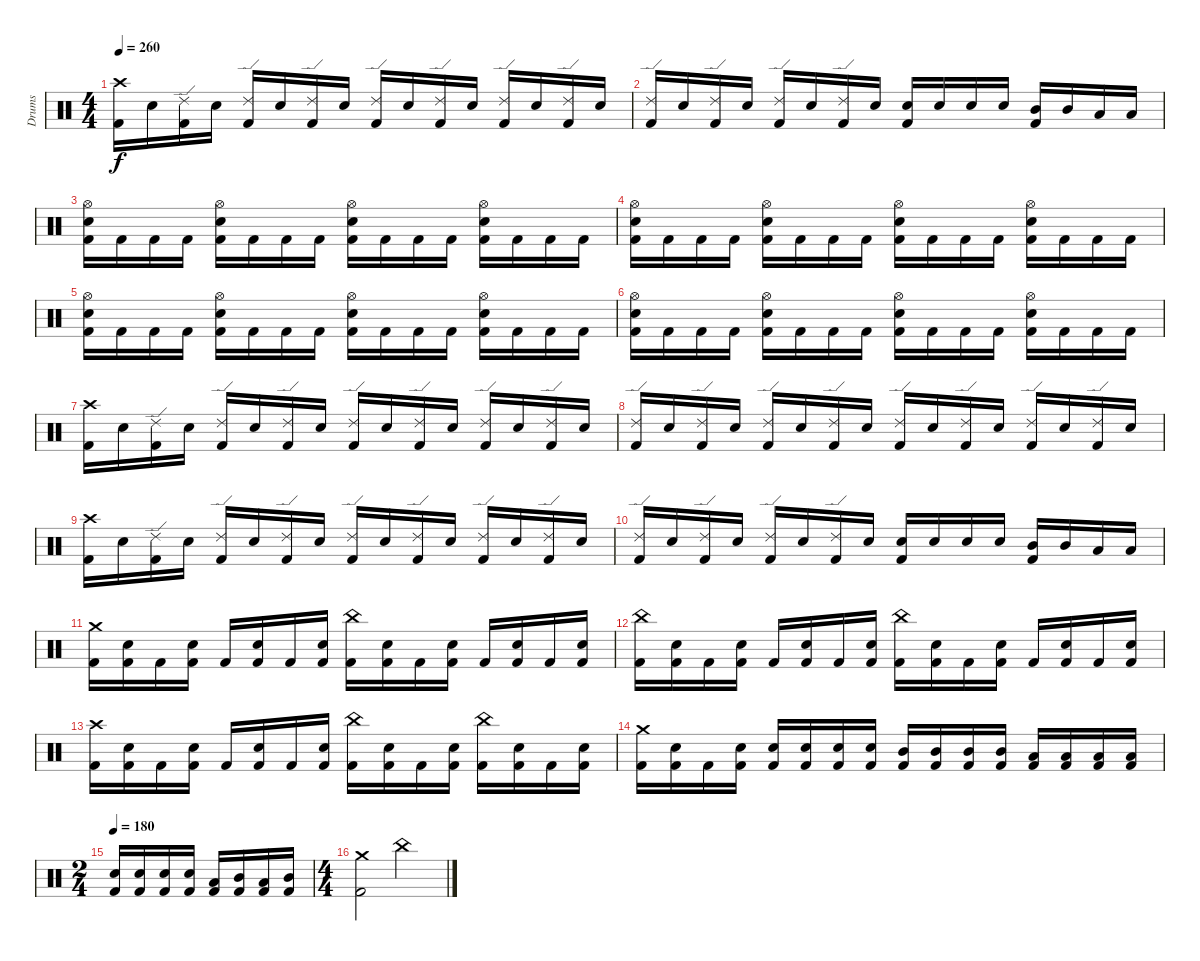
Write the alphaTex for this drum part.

\track ("Drums" "Drums") {instrument percussion}
\staff {score}
\articulation defaults
\ts (4 4)
\tempo 260
\clef neutral
\ks c
("Crash high (hit)" "Kick (hit) 2").16{dy f} "Snare (hit) 2".16 ("Ride (edge) 2" "Kick (hit) 2").16 "Snare (hit) 2".16 ("Ride (edge) 2" "Kick (hit) 2").16 "Snare (hit) 2".16 ("Ride (edge) 2" "Kick (hit) 2").16 "Snare (hit) 2".16 ("Ride (edge) 2" "Kick (hit) 2").16 "Snare (hit) 2".16 ("Ride (edge) 2" "Kick (hit) 2").16 "Snare (hit) 2".16 ("Ride (edge) 2" "Kick (hit) 2").16 "Snare (hit) 2".16 ("Ride (edge) 2" "Kick (hit) 2").16 "Snare (hit) 2".16 |
("Ride (edge) 2" "Kick (hit) 2").16 "Snare (hit) 2".16 ("Ride (edge) 2" "Kick (hit) 2").16 "Snare (hit) 2".16 ("Ride (edge) 2" "Kick (hit) 2").16 "Snare (hit) 2".16 ("Ride (edge) 2" "Kick (hit) 2").16 "Snare (hit) 2".16 ("Snare (hit) 2" "Kick (hit) 2").16 "Snare (hit) 2".16 "Snare (hit) 2".16 "Snare (hit) 2".16 ("Mid Tom (hit)" "Kick (hit) 2").16 "Mid Tom (hit)".16 "Low Tom (hit)".16 "Low Tom (hit)".16 |
("Hi-Hat (open)" "Snare (hit) 2" "Kick (hit) 2").16 "Kick (hit) 2".16 "Kick (hit) 2".16 "Kick (hit) 2".16 ("Hi-Hat (open)" "Snare (hit) 2" "Kick (hit) 2").16 "Kick (hit) 2".16 "Kick (hit) 2".16 "Kick (hit) 2".16 ("Hi-Hat (open)" "Snare (hit) 2" "Kick (hit) 2").16 "Kick (hit) 2".16 "Kick (hit) 2".16 "Kick (hit) 2".16 ("Hi-Hat (open)" "Snare (hit) 2" "Kick (hit) 2").16 "Kick (hit) 2".16 "Kick (hit) 2".16 "Kick (hit) 2".16 |
("Hi-Hat (open)" "Snare (hit) 2" "Kick (hit) 2").16 "Kick (hit) 2".16 "Kick (hit) 2".16 "Kick (hit) 2".16 ("Hi-Hat (open)" "Snare (hit) 2" "Kick (hit) 2").16 "Kick (hit) 2".16 "Kick (hit) 2".16 "Kick (hit) 2".16 ("Hi-Hat (open)" "Snare (hit) 2" "Kick (hit) 2").16 "Kick (hit) 2".16 "Kick (hit) 2".16 "Kick (hit) 2".16 ("Hi-Hat (open)" "Snare (hit) 2" "Kick (hit) 2").16 "Kick (hit) 2".16 "Kick (hit) 2".16 "Kick (hit) 2".16 |
("Hi-Hat (open)" "Snare (hit) 2" "Kick (hit) 2").16 "Kick (hit) 2".16 "Kick (hit) 2".16 "Kick (hit) 2".16 ("Hi-Hat (open)" "Snare (hit) 2" "Kick (hit) 2").16 "Kick (hit) 2".16 "Kick (hit) 2".16 "Kick (hit) 2".16 ("Hi-Hat (open)" "Snare (hit) 2" "Kick (hit) 2").16 "Kick (hit) 2".16 "Kick (hit) 2".16 "Kick (hit) 2".16 ("Hi-Hat (open)" "Snare (hit) 2" "Kick (hit) 2").16 "Kick (hit) 2".16 "Kick (hit) 2".16 "Kick (hit) 2".16 |
("Hi-Hat (open)" "Snare (hit) 2" "Kick (hit) 2").16 "Kick (hit) 2".16 "Kick (hit) 2".16 "Kick (hit) 2".16 ("Hi-Hat (open)" "Snare (hit) 2" "Kick (hit) 2").16 "Kick (hit) 2".16 "Kick (hit) 2".16 "Kick (hit) 2".16 ("Hi-Hat (open)" "Snare (hit) 2" "Kick (hit) 2").16 "Kick (hit) 2".16 "Kick (hit) 2".16 "Kick (hit) 2".16 ("Hi-Hat (open)" "Snare (hit) 2" "Kick (hit) 2").16 "Kick (hit) 2".16 "Kick (hit) 2".16 "Kick (hit) 2".16 |
("Crash high (hit)" "Kick (hit) 2").16 "Snare (hit) 2".16 ("Ride (edge) 2" "Kick (hit) 2").16 "Snare (hit) 2".16 ("Ride (edge) 2" "Kick (hit) 2").16 "Snare (hit) 2".16 ("Ride (edge) 2" "Kick (hit) 2").16 "Snare (hit) 2".16 ("Ride (edge) 2" "Kick (hit) 2").16 "Snare (hit) 2".16 ("Ride (edge) 2" "Kick (hit) 2").16 "Snare (hit) 2".16 ("Ride (edge) 2" "Kick (hit) 2").16 "Snare (hit) 2".16 ("Ride (edge) 2" "Kick (hit) 2").16 "Snare (hit) 2".16 |
("Ride (edge) 2" "Kick (hit) 2").16 "Snare (hit) 2".16 ("Ride (edge) 2" "Kick (hit) 2").16 "Snare (hit) 2".16 ("Ride (edge) 2" "Kick (hit) 2").16 "Snare (hit) 2".16 ("Ride (edge) 2" "Kick (hit) 2").16 "Snare (hit) 2".16 ("Ride (edge) 2" "Kick (hit) 2").16 "Snare (hit) 2".16 ("Ride (edge) 2" "Kick (hit) 2").16 "Snare (hit) 2".16 ("Ride (edge) 2" "Kick (hit) 2").16 "Snare (hit) 2".16 ("Ride (edge) 2" "Kick (hit) 2").16 "Snare (hit) 2".16 |
("Crash high (hit)" "Kick (hit) 2").16 "Snare (hit) 2".16 ("Ride (edge) 2" "Kick (hit) 2").16 "Snare (hit) 2".16 ("Ride (edge) 2" "Kick (hit) 2").16 "Snare (hit) 2".16 ("Ride (edge) 2" "Kick (hit) 2").16 "Snare (hit) 2".16 ("Ride (edge) 2" "Kick (hit) 2").16 "Snare (hit) 2".16 ("Ride (edge) 2" "Kick (hit) 2").16 "Snare (hit) 2".16 ("Ride (edge) 2" "Kick (hit) 2").16 "Snare (hit) 2".16 ("Ride (edge) 2" "Kick (hit) 2").16 "Snare (hit) 2".16 |
("Ride (edge) 2" "Kick (hit) 2").16 "Snare (hit) 2".16 ("Ride (edge) 2" "Kick (hit) 2").16 "Snare (hit) 2".16 ("Ride (edge) 2" "Kick (hit) 2").16 "Snare (hit) 2".16 ("Ride (edge) 2" "Kick (hit) 2").16 "Snare (hit) 2".16 ("Snare (hit) 2" "Kick (hit) 2").16 "Snare (hit) 2".16 "Snare (hit) 2".16 "Snare (hit) 2".16 ("Mid Tom (hit)" "Kick (hit) 2").16 "Mid Tom (hit)".16 "Low Tom (hit)".16 "Low Tom (hit)".16 |
("Crash medium (hit)" "Kick (hit) 2").16 ("Snare (hit) 2" "Kick (hit) 2").16 "Kick (hit) 2".16 ("Snare (hit) 2" "Kick (hit) 2").16 "Kick (hit) 2".16 ("Snare (hit) 2" "Kick (hit) 2").16 "Kick (hit) 2".16 ("Snare (hit) 2" "Kick (hit) 2").16 ("China (hit)" "Kick (hit) 2").16 ("Snare (hit) 2" "Kick (hit) 2").16 "Kick (hit) 2".16 ("Snare (hit) 2" "Kick (hit) 2").16 "Kick (hit) 2".16 ("Snare (hit) 2" "Kick (hit) 2").16 "Kick (hit) 2".16 ("Snare (hit) 2" "Kick (hit) 2").16 |
("China (hit)" "Kick (hit) 2").16 ("Snare (hit) 2" "Kick (hit) 2").16 "Kick (hit) 2".16 ("Snare (hit) 2" "Kick (hit) 2").16 "Kick (hit) 2".16 ("Snare (hit) 2" "Kick (hit) 2").16 "Kick (hit) 2".16 ("Snare (hit) 2" "Kick (hit) 2").16 ("China (hit)" "Kick (hit) 2").16 ("Snare (hit) 2" "Kick (hit) 2").16 "Kick (hit) 2".16 ("Snare (hit) 2" "Kick (hit) 2").16 "Kick (hit) 2".16 ("Snare (hit) 2" "Kick (hit) 2").16 "Kick (hit) 2".16 ("Snare (hit) 2" "Kick (hit) 2").16 |
("Crash high (hit)" "Kick (hit) 2").16 ("Snare (hit) 2" "Kick (hit) 2").16 "Kick (hit) 2".16 ("Snare (hit) 2" "Kick (hit) 2").16 "Kick (hit) 2".16 ("Snare (hit) 2" "Kick (hit) 2").16 "Kick (hit) 2".16 ("Snare (hit) 2" "Kick (hit) 2").16 ("China (hit)" "Kick (hit) 2").16 ("Snare (hit) 2" "Kick (hit) 2").16 "Kick (hit) 2".16 ("Snare (hit) 2" "Kick (hit) 2").16 ("China (hit)" "Kick (hit) 2").16 ("Snare (hit) 2" "Kick (hit) 2").16 "Kick (hit) 2".16 ("Snare (hit) 2" "Kick (hit) 2").16 |
("Crash medium (hit)" "Kick (hit) 2").16 ("Snare (hit) 2" "Kick (hit) 2").16 "Kick (hit) 2".16 ("Snare (hit) 2" "Kick (hit) 2").16 ("Snare (hit) 2" "Kick (hit) 2").16 ("Snare (hit) 2" "Kick (hit) 2").16 ("Snare (hit) 2" "Kick (hit) 2").16 ("Snare (hit) 2" "Kick (hit) 2").16 ("Mid Tom (hit)" "Kick (hit) 2").16 ("Mid Tom (hit)" "Kick (hit) 2").16 ("Mid Tom (hit)" "Kick (hit) 2").16 ("Mid Tom (hit)" "Kick (hit) 2").16 ("Low Tom (hit)" "Kick (hit) 2").16 ("Low Tom (hit)" "Kick (hit) 2").16 ("Low Tom (hit)" "Kick (hit) 2").16 ("Low Tom (hit)" "Kick (hit) 2").16 |
\ts (2 4)
\tempo 180
("Snare (hit) 2" "Kick (hit) 2").16 ("Snare (hit) 2" "Kick (hit) 2").16 ("Snare (hit) 2" "Kick (hit) 2").16 ("Snare (hit) 2" "Kick (hit) 2").16 ("Low Tom (hit)" "Kick (hit) 2").16 ("Mid Tom (hit)" "Kick (hit) 2").16 ("Low Tom (hit)" "Kick (hit) 2").16 ("Mid Tom (hit)" "Kick (hit) 2").16 |
\ts (4 4)
("Crash medium (hit)" "Kick (hit) 2").2 "China (hit)".2
